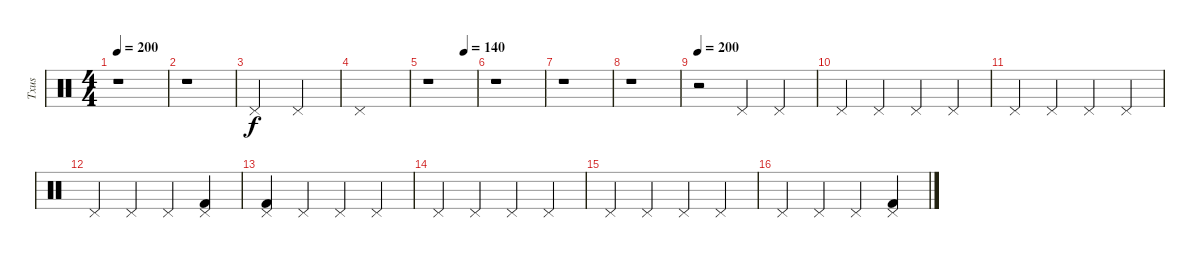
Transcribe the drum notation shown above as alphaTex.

\track ("Txus" "Txus") {instrument percussion}
\staff
\articulation defaults
\ts (4 4)
\tempo 200
\clef neutral
\ks c
r.1{dy f} |
r.1 |
"Pedal Hi-Hat (hit)".2 "Pedal Hi-Hat (hit)".2 |
"Pedal Hi-Hat (hit)".1 |
\tempo (140 0.75)
r.1 |
r.1 |
r.1 |
r.1 |
\tempo 200
r.2 "Pedal Hi-Hat (hit)".4 "Pedal Hi-Hat (hit)".4 |
"Pedal Hi-Hat (hit)".4 "Pedal Hi-Hat (hit)".4 "Pedal Hi-Hat (hit)".4 "Pedal Hi-Hat (hit)".4 |
"Pedal Hi-Hat (hit)".4 "Pedal Hi-Hat (hit)".4 "Pedal Hi-Hat (hit)".4 "Pedal Hi-Hat (hit)".4 |
"Pedal Hi-Hat (hit)".4 "Pedal Hi-Hat (hit)".4 "Pedal Hi-Hat (hit)".4 ("Pedal Hi-Hat (hit)" "Kick (hit) 2").4 |
("Pedal Hi-Hat (hit)" "Kick (hit) 2").4 "Pedal Hi-Hat (hit)".4 "Pedal Hi-Hat (hit)".4 "Pedal Hi-Hat (hit)".4 |
"Pedal Hi-Hat (hit)".4 "Pedal Hi-Hat (hit)".4 "Pedal Hi-Hat (hit)".4 "Pedal Hi-Hat (hit)".4 |
"Pedal Hi-Hat (hit)".4 "Pedal Hi-Hat (hit)".4 "Pedal Hi-Hat (hit)".4 "Pedal Hi-Hat (hit)".4 |
"Pedal Hi-Hat (hit)".4 "Pedal Hi-Hat (hit)".4 "Pedal Hi-Hat (hit)".4 ("Pedal Hi-Hat (hit)" "Kick (hit) 2").4
